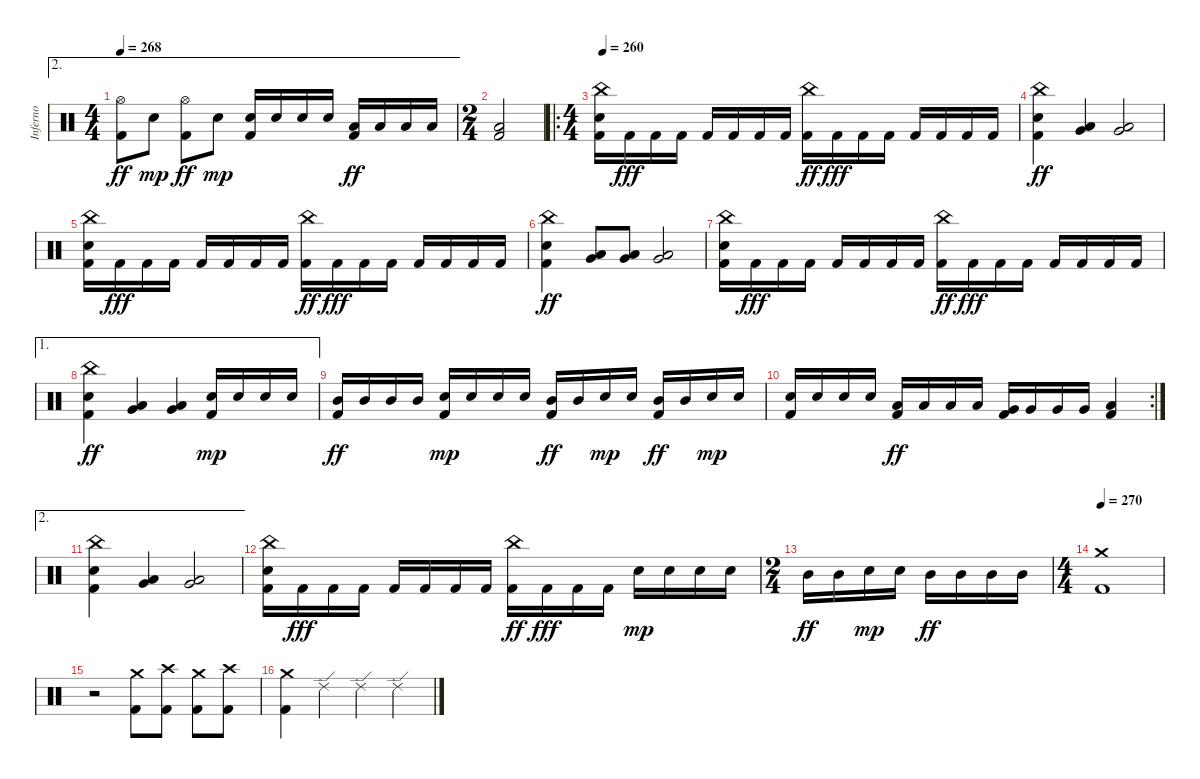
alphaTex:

\track ("Inferno" "Inferno") {instrument percussion}
\staff {score}
\articulation defaults
\ae 2
\ts (4 4)
\tempo 268
\clef neutral
\ks c
("Kick (hit) 2" "Hi-Hat (open)").8{dy ff} "Electric Snare (hit)".8{dy mp} ("Kick (hit) 2" "Hi-Hat (open)").8{dy ff} "Electric Snare (hit)".8{dy mp} ("Kick (hit) 2" "Electric Snare (hit)").16 "Electric Snare (hit)".16 "Electric Snare (hit)".16 "Electric Snare (hit)".16 ("Kick (hit) 2" "Low Tom (hit)").16{dy ff} "Low Tom (hit)".16 "Low Tom (hit)".16 "Low Tom (hit)".16 |
\ts (2 4)
("Kick (hit) 2" "Low Floor Tom (hit)").2 |
\ro
\ts (4 4)
\tempo 260
("Kick (hit) 2" "Electric Snare (hit)" "China (hit)").16 "Kick (hit) 2".16{dy fff} "Kick (hit) 2".16 "Kick (hit) 2".16 "Kick (hit) 2".16 "Kick (hit) 2".16 "Kick (hit) 2".16 "Kick (hit) 2".16 ("Kick (hit) 2" "China (hit)").16{dy ff} "Kick (hit) 2".16{dy fff} "Kick (hit) 2".16 "Kick (hit) 2".16 "Kick (hit) 2".16 "Kick (hit) 2".16 "Kick (hit) 2".16 "Kick (hit) 2".16 |
("Kick (hit) 2" "Electric Snare (hit)" "China (hit)").4{dy ff} ("Low Tom (hit)" "Very Low Tom (hit)").4 ("Low Tom (hit)" "Very Low Tom (hit)").2 |
("Kick (hit) 2" "Electric Snare (hit)" "China (hit)").16 "Kick (hit) 2".16{dy fff} "Kick (hit) 2".16 "Kick (hit) 2".16 "Kick (hit) 2".16 "Kick (hit) 2".16 "Kick (hit) 2".16 "Kick (hit) 2".16 ("Kick (hit) 2" "China (hit)").16{dy ff} "Kick (hit) 2".16{dy fff} "Kick (hit) 2".16 "Kick (hit) 2".16 "Kick (hit) 2".16 "Kick (hit) 2".16 "Kick (hit) 2".16 "Kick (hit) 2".16 |
("Kick (hit) 2" "Electric Snare (hit)" "China (hit)").4{dy ff} ("Low Tom (hit)" "Very Low Tom (hit)").8 ("Low Tom (hit)" "Very Low Tom (hit)").8 ("Low Tom (hit)" "Very Low Tom (hit)").2 |
("Kick (hit) 2" "Electric Snare (hit)" "China (hit)").16 "Kick (hit) 2".16{dy fff} "Kick (hit) 2".16 "Kick (hit) 2".16 "Kick (hit) 2".16 "Kick (hit) 2".16 "Kick (hit) 2".16 "Kick (hit) 2".16 ("Kick (hit) 2" "China (hit)").16{dy ff} "Kick (hit) 2".16{dy fff} "Kick (hit) 2".16 "Kick (hit) 2".16 "Kick (hit) 2".16 "Kick (hit) 2".16 "Kick (hit) 2".16 "Kick (hit) 2".16 |
\ae 1
("Kick (hit) 2" "Electric Snare (hit)" "China (hit)").4{dy ff} ("Low Tom (hit)" "Very Low Tom (hit)").4 ("Low Tom (hit)" "Very Low Tom (hit)").4 ("Kick (hit) 2" "Electric Snare (hit)").16{dy mp} "Electric Snare (hit)".16 "Electric Snare (hit)".16 "Electric Snare (hit)".16 |
("Kick (hit) 2" "Mid Tom (hit)").16{dy ff} "Mid Tom (hit)".16 "Mid Tom (hit)".16 "Mid Tom (hit)".16 ("Kick (hit) 2" "Electric Snare (hit)").16{dy mp} "Electric Snare (hit)".16 "Electric Snare (hit)".16 "Electric Snare (hit)".16 ("Kick (hit) 2" "Mid Tom (hit)").16{dy ff} "Mid Tom (hit)".16 "Electric Snare (hit)".16{dy mp} "Electric Snare (hit)".16 ("Kick (hit) 2" "Mid Tom (hit)").16{dy ff} "Mid Tom (hit)".16 "Electric Snare (hit)".16{dy mp} "Electric Snare (hit)".16 |
\rc 2
("Kick (hit) 2" "Electric Snare (hit)").16 "Electric Snare (hit)".16 "Electric Snare (hit)".16 "Electric Snare (hit)".16 ("Kick (hit) 2" "Low Tom (hit)").16{dy ff} "Low Tom (hit)".16 "Low Tom (hit)".16 "Low Tom (hit)".16 ("Kick (hit) 2" "Very Low Tom (hit)").16 "Very Low Tom (hit)".16 "Very Low Tom (hit)".16 "Very Low Tom (hit)".16 ("Kick (hit) 2" "Low Floor Tom (hit)").4 |
\ae 2
("Kick (hit) 2" "Electric Snare (hit)" "China (hit)").4 ("Low Tom (hit)" "Very Low Tom (hit)").4 ("Low Tom (hit)" "Very Low Tom (hit)").2 |
("Kick (hit) 2" "Electric Snare (hit)" "China (hit)").16 "Kick (hit) 2".16{dy fff} "Kick (hit) 2".16 "Kick (hit) 2".16 "Kick (hit) 2".16 "Kick (hit) 2".16 "Kick (hit) 2".16 "Kick (hit) 2".16 ("Kick (hit) 2" "China (hit)").16{dy ff} "Kick (hit) 2".16{dy fff} "Kick (hit) 2".16 "Kick (hit) 2".16 "Electric Snare (hit)".16{dy mp} "Electric Snare (hit)".16 "Electric Snare (hit)".16 "Electric Snare (hit)".16 |
\ts (2 4)
"Mid Tom (hit)".16{dy ff} "Mid Tom (hit)".16 "Electric Snare (hit)".16{dy mp} "Electric Snare (hit)".16 "Mid Tom (hit)".16{dy ff} "Mid Tom (hit)".16 "Mid Tom (hit)".16 "Mid Tom (hit)".16 |
\ts (4 4)
\tempo 270
("Kick (hit) 2" "Crash medium (hit)").1 |
r.2 ("Kick (hit) 2" "Crash medium (hit)").8 ("Kick (hit) 2" "Crash high (hit)").8 ("Kick (hit) 2" "Crash medium (hit)").8 ("Kick (hit) 2" "Crash high (hit)").8 |
("Kick (hit) 2" "Crash medium (hit)").4 "Ride (edge) 2".4 "Ride (edge) 2".4 "Ride (edge) 2".4
